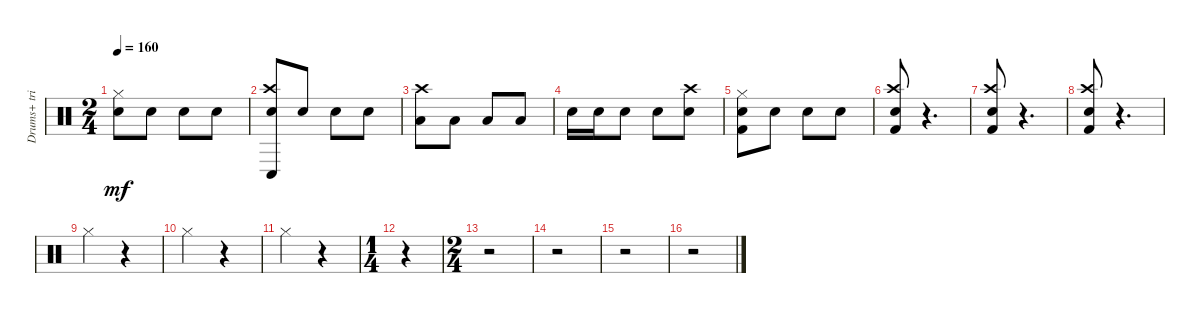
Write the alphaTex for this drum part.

\track ("Drums+ triangle" "Drums+ tri") {instrument percussion}
\staff {score}
\articulation defaults
\ts (2 4)
\tempo 160
\clef neutral
\ks c
("Hi-Hat (closed)" "Snare (hit) 2").8{dy mf} "Snare (hit) 2".8 "Snare (hit) 2".8 "Snare (hit) 2".8 |
("Crash high (hit)" "Snare (hit) 2" "Conga low (hit)").8 "Snare (hit) 2".8 "Snare (hit) 2".8 "Snare (hit) 2".8 |
("Crash high (hit)" "Low Tom (hit)").8 "Low Tom (hit)".8 "Low Tom (hit)".8 "Low Tom (hit)".8 |
"Snare (hit) 2".16 "Snare (hit) 2".16 "Snare (hit) 2".8 "Snare (hit) 2".8 ("Crash high (hit)" "Snare (hit) 2").8 |
("Hi-Hat (closed)" "Snare (hit) 2" "Kick (hit) 2").8 "Snare (hit) 2".8 "Snare (hit) 2".8 "Snare (hit) 2".8 |
("Crash high (hit)" "Snare (hit) 2" "Kick (hit) 2").8 r.4{d} |
("Crash high (hit)" "Snare (hit) 2" "Kick (hit) 2").8 r.4{d} |
("Crash high (hit)" "Snare (hit) 2" "Kick (hit) 2").8 r.4{d} |
"Hi-Hat (closed)".4 r.4 |
"Hi-Hat (closed)".4 r.4 |
"Hi-Hat (closed)".4 r.4 |
\ts (1 4)
r.4 |
\ts (2 4)
r.2 |
r.2 |
r.2 |
r.2
